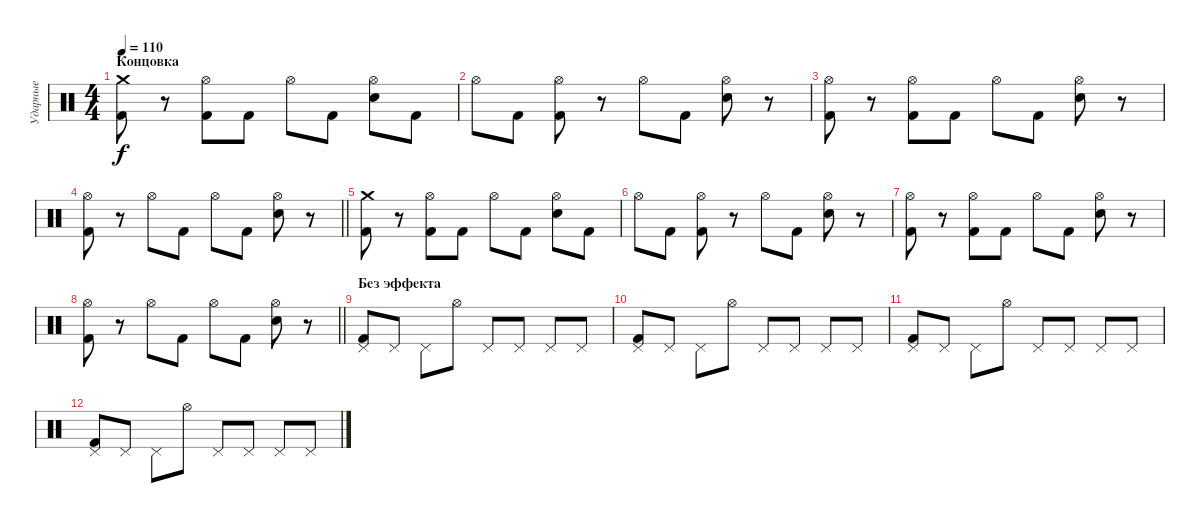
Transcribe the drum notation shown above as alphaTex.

\track ("Ударные" "Ударные") {instrument percussion}
\staff {score}
\articulation defaults
\ts (4 4)
\section ("" "Концовка")
\tempo 110
\clef neutral
\ks c
("Crash medium (hit)" "Kick (hit) 2").8{dy f} r.8 ("Hi-Hat (open)" "Kick (hit) 2").8 "Kick (hit) 2".8 "Hi-Hat (open)".8 "Kick (hit) 2".8 ("Hi-Hat (open)" "Electric Snare (hit)").8 "Kick (hit) 2".8 |
"Hi-Hat (open)".8 "Kick (hit) 2".8 ("Hi-Hat (open)" "Kick (hit) 2").8 r.8 "Hi-Hat (open)".8 "Kick (hit) 2".8 ("Hi-Hat (open)" "Electric Snare (hit)").8 r.8 |
("Hi-Hat (open)" "Kick (hit) 2").8 r.8 ("Hi-Hat (open)" "Kick (hit) 2").8 "Kick (hit) 2".8 "Hi-Hat (open)".8 "Kick (hit) 2".8 ("Hi-Hat (open)" "Electric Snare (hit)").8 r.8 |
\barLineRight lightlight
("Hi-Hat (open)" "Kick (hit) 2").8 r.8 "Hi-Hat (open)".8 "Kick (hit) 2".8 "Hi-Hat (open)".8 "Kick (hit) 2".8 ("Hi-Hat (open)" "Electric Snare (hit)").8 r.8 |
("Crash medium (hit)" "Kick (hit) 2").8 r.8 ("Hi-Hat (open)" "Kick (hit) 2").8 "Kick (hit) 2".8 "Hi-Hat (open)".8 "Kick (hit) 2".8 ("Hi-Hat (open)" "Electric Snare (hit)").8 "Kick (hit) 2".8 |
"Hi-Hat (open)".8 "Kick (hit) 2".8 ("Hi-Hat (open)" "Kick (hit) 2").8 r.8 "Hi-Hat (open)".8 "Kick (hit) 2".8 ("Hi-Hat (open)" "Electric Snare (hit)").8 r.8 |
("Hi-Hat (open)" "Kick (hit) 2").8 r.8 ("Hi-Hat (open)" "Kick (hit) 2").8 "Kick (hit) 2".8 "Hi-Hat (open)".8 "Kick (hit) 2".8 ("Hi-Hat (open)" "Electric Snare (hit)").8 r.8 |
\barLineRight lightlight
("Hi-Hat (open)" "Kick (hit) 2").8 r.8 "Hi-Hat (open)".8 "Kick (hit) 2".8 "Hi-Hat (open)".8 "Kick (hit) 2".8 ("Hi-Hat (open)" "Electric Snare (hit)").8 r.8 |
\section ("" "Без эффекта")
("Pedal Hi-Hat (hit)" "Kick (hit) 2").8 "Pedal Hi-Hat (hit)".8 "Pedal Hi-Hat (hit)".8 "Hi-Hat (open)".8 "Pedal Hi-Hat (hit)".8 "Pedal Hi-Hat (hit)".8 "Pedal Hi-Hat (hit)".8 "Pedal Hi-Hat (hit)".8 |
("Pedal Hi-Hat (hit)" "Kick (hit) 2").8 "Pedal Hi-Hat (hit)".8 "Pedal Hi-Hat (hit)".8 "Hi-Hat (open)".8 "Pedal Hi-Hat (hit)".8 "Pedal Hi-Hat (hit)".8 "Pedal Hi-Hat (hit)".8 "Pedal Hi-Hat (hit)".8 |
("Pedal Hi-Hat (hit)" "Kick (hit) 2").8 "Pedal Hi-Hat (hit)".8 "Pedal Hi-Hat (hit)".8 "Hi-Hat (open)".8 "Pedal Hi-Hat (hit)".8 "Pedal Hi-Hat (hit)".8 "Pedal Hi-Hat (hit)".8 "Pedal Hi-Hat (hit)".8 |
("Pedal Hi-Hat (hit)" "Kick (hit) 2").8 "Pedal Hi-Hat (hit)".8 "Pedal Hi-Hat (hit)".8 "Hi-Hat (open)".8 "Pedal Hi-Hat (hit)".8 "Pedal Hi-Hat (hit)".8 "Pedal Hi-Hat (hit)".8 "Pedal Hi-Hat (hit)".8
